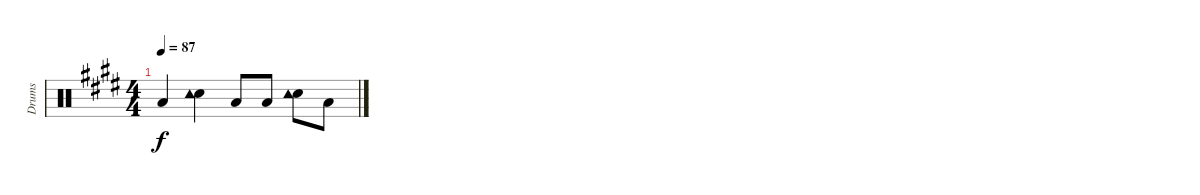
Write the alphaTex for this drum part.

\track ("Drums" "Drums") {instrument percussion}
\staff {score}
\articulation defaults
\ts (4 4)
\tempo 87
\clef neutral
\ks e "Low Floor Tom (hit)".4{dy f}
("Electric Snare (hit)" "Tambourine (hit)").4 "Low Floor Tom (hit)".8 "Low Floor Tom (hit)".8 ("Electric Snare (hit)" "Tambourine (hit)").8 "Low Floor Tom (hit)".8
